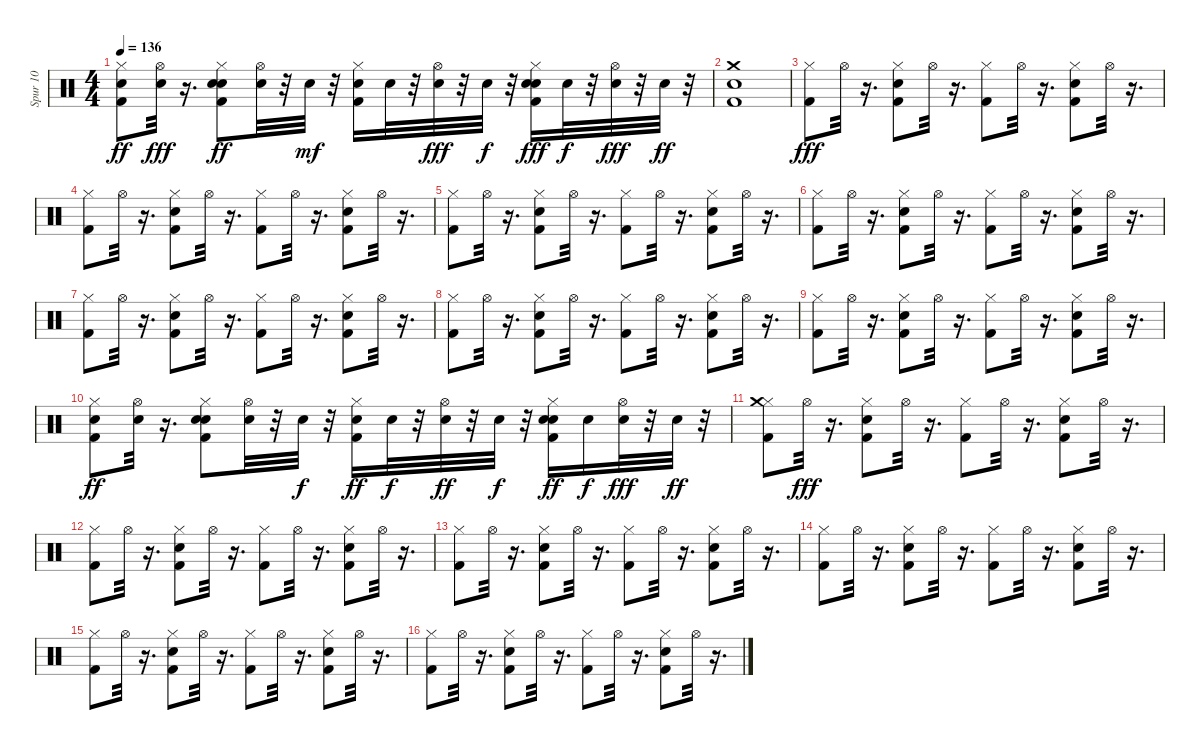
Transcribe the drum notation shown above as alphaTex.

\track ("Spur 10" "Spur 10") {instrument percussion}
\staff {score}
\articulation defaults
\ts (4 4)
\tempo 136
\clef neutral
\ks c
("Hi-Hat (closed)" "Kick (hit) 2" "Snare (hit) 2").8{dy ff} ("Snare (hit) 2" "Hi-Hat (open)").32{dy fff} r.16{d} ("Kick (hit) 2" "Snare (hit) 2" "Hi-Hat (closed)" "Snare (hit) 2").8{dy ff} ("Hi-Hat (open)" "Snare (hit) 2").32 r.32 "Snare (hit) 2".32{dy mf} r.32 ("Kick (hit) 2" "Hi-Hat (closed)" "Snare (hit) 2").16 "Snare (hit) 2".32 r.32 ("Snare (hit) 2" "Hi-Hat (open)").32{dy fff} r.32 "Snare (hit) 2".32{dy f} r.32 ("Hi-Hat (closed)" "Kick (hit) 2" "Snare (hit) 2" "Snare (hit) 2").16{dy fff} "Snare (hit) 2".32{dy f} r.32 ("Snare (hit) 2" "Hi-Hat (open)").32{dy fff} r.32 "Snare (hit) 2".32{dy ff} r.32 |
("Kick (hit) 2" "Snare (hit) 2" "Crash medium (hit)").1 |
("Hi-Hat (closed)" "Kick (hit) 2").8{dy fff} "Hi-Hat (open)".32 r.16{d} ("Snare (hit) 2" "Hi-Hat (closed)" "Kick (hit) 2").8 "Hi-Hat (open)".32 r.16{d} ("Hi-Hat (closed)" "Kick (hit) 2").8 "Hi-Hat (open)".32 r.16{d} ("Kick (hit) 2" "Hi-Hat (closed)" "Snare (hit) 2").8 "Hi-Hat (open)".32 r.16{d} |
("Hi-Hat (closed)" "Kick (hit) 2").8 "Hi-Hat (open)".32 r.16{d} ("Kick (hit) 2" "Hi-Hat (closed)" "Snare (hit) 2").8 "Hi-Hat (open)".32 r.16{d} ("Kick (hit) 2" "Hi-Hat (closed)").8 "Hi-Hat (open)".32 r.16{d} ("Hi-Hat (closed)" "Kick (hit) 2" "Snare (hit) 2").8 "Hi-Hat (open)".32 r.16{d} |
("Kick (hit) 2" "Hi-Hat (closed)").8 "Hi-Hat (open)".32 r.16{d} ("Hi-Hat (closed)" "Snare (hit) 2" "Kick (hit) 2").8 "Hi-Hat (open)".32 r.16{d} ("Kick (hit) 2" "Hi-Hat (closed)").8 "Hi-Hat (open)".32 r.16{d} ("Kick (hit) 2" "Hi-Hat (closed)" "Snare (hit) 2").8 "Hi-Hat (open)".32 r.16{d} |
("Hi-Hat (closed)" "Kick (hit) 2").8 "Hi-Hat (open)".32 r.16{d} ("Hi-Hat (closed)" "Kick (hit) 2" "Snare (hit) 2").8 "Hi-Hat (open)".32 r.16{d} ("Hi-Hat (closed)" "Kick (hit) 2").8 "Hi-Hat (open)".32 r.16{d} ("Hi-Hat (closed)" "Snare (hit) 2" "Kick (hit) 2").8 "Hi-Hat (open)".32 r.16{d} |
("Hi-Hat (closed)" "Kick (hit) 2").8 "Hi-Hat (open)".32 r.16{d} ("Hi-Hat (closed)" "Kick (hit) 2" "Snare (hit) 2").8 "Hi-Hat (open)".32 r.16{d} ("Hi-Hat (closed)" "Kick (hit) 2").8 "Hi-Hat (open)".32 r.16{d} ("Hi-Hat (closed)" "Snare (hit) 2" "Kick (hit) 2").8 "Hi-Hat (open)".32 r.16{d} |
("Kick (hit) 2" "Hi-Hat (closed)").8 "Hi-Hat (open)".32 r.16{d} ("Snare (hit) 2" "Hi-Hat (closed)" "Kick (hit) 2").8 "Hi-Hat (open)".32 r.16{d} ("Kick (hit) 2" "Hi-Hat (closed)").8 "Hi-Hat (open)".32 r.16{d} ("Hi-Hat (closed)" "Kick (hit) 2" "Snare (hit) 2").8 "Hi-Hat (open)".32 r.16{d} |
("Hi-Hat (closed)" "Kick (hit) 2").8 "Hi-Hat (open)".32 r.16{d} ("Snare (hit) 2" "Hi-Hat (closed)" "Kick (hit) 2").8 "Hi-Hat (open)".32 r.16{d} ("Kick (hit) 2" "Hi-Hat (closed)").8 "Hi-Hat (open)".32 r.16{d} ("Hi-Hat (closed)" "Kick (hit) 2" "Snare (hit) 2").8 "Hi-Hat (open)".32 r.16{d} |
("Hi-Hat (closed)" "Kick (hit) 2" "Snare (hit) 2").8{dy ff} ("Hi-Hat (open)" "Snare (hit) 2").32 r.16{d} ("Hi-Hat (closed)" "Snare (hit) 2" "Kick (hit) 2" "Snare (hit) 2").8 ("Hi-Hat (open)" "Snare (hit) 2").32 r.32 "Snare (hit) 2".32{dy f} r.32 ("Hi-Hat (closed)" "Kick (hit) 2" "Snare (hit) 2").16{dy ff} "Snare (hit) 2".32{dy f} r.32 ("Hi-Hat (open)" "Snare (hit) 2").32{dy ff} r.32 "Snare (hit) 2".32{dy f} r.32 ("Hi-Hat (closed)" "Kick (hit) 2" "Snare (hit) 2" "Snare (hit) 2").16{dy ff} "Snare (hit) 2".16{dy f} ("Hi-Hat (open)" "Snare (hit) 2").32{dy fff} r.32 "Snare (hit) 2".32{dy ff} r.32 |
("Hi-Hat (closed)" "Kick (hit) 2" "Crash medium (hit)").8 "Hi-Hat (open)".32{dy fff} r.16{d} ("Hi-Hat (closed)" "Kick (hit) 2" "Snare (hit) 2").8 "Hi-Hat (open)".32 r.16{d} ("Hi-Hat (closed)" "Kick (hit) 2").8 "Hi-Hat (open)".32 r.16{d} ("Kick (hit) 2" "Snare (hit) 2" "Hi-Hat (closed)").8 "Hi-Hat (open)".32 r.16{d} |
("Hi-Hat (closed)" "Kick (hit) 2").8 "Hi-Hat (open)".32 r.16{d} ("Kick (hit) 2" "Snare (hit) 2" "Hi-Hat (closed)").8 "Hi-Hat (open)".32 r.16{d} ("Hi-Hat (closed)" "Kick (hit) 2").8 "Hi-Hat (open)".32 r.16{d} ("Hi-Hat (closed)" "Kick (hit) 2" "Snare (hit) 2").8 "Hi-Hat (open)".32 r.16{d} |
("Hi-Hat (closed)" "Kick (hit) 2").8 "Hi-Hat (open)".32 r.16{d} ("Hi-Hat (closed)" "Kick (hit) 2" "Snare (hit) 2").8 "Hi-Hat (open)".32 r.16{d} ("Hi-Hat (closed)" "Kick (hit) 2").8 "Hi-Hat (open)".32 r.16{d} ("Hi-Hat (closed)" "Kick (hit) 2" "Snare (hit) 2").8 "Hi-Hat (open)".32 r.16{d} |
("Hi-Hat (closed)" "Kick (hit) 2").8 "Hi-Hat (open)".32 r.16{d} ("Hi-Hat (closed)" "Kick (hit) 2" "Snare (hit) 2").8 "Hi-Hat (open)".32 r.16{d} ("Hi-Hat (closed)" "Kick (hit) 2").8 "Hi-Hat (open)".32 r.16{d} ("Hi-Hat (closed)" "Kick (hit) 2" "Snare (hit) 2").8 "Hi-Hat (open)".32 r.16{d} |
("Hi-Hat (closed)" "Kick (hit) 2").8 "Hi-Hat (open)".32 r.16{d} ("Hi-Hat (closed)" "Kick (hit) 2" "Snare (hit) 2").8 "Hi-Hat (open)".32 r.16{d} ("Hi-Hat (closed)" "Kick (hit) 2").8 "Hi-Hat (open)".32 r.16{d} ("Hi-Hat (closed)" "Kick (hit) 2" "Snare (hit) 2").8 "Hi-Hat (open)".32 r.16{d} |
("Hi-Hat (closed)" "Kick (hit) 2").8 "Hi-Hat (open)".32 r.16{d} ("Hi-Hat (closed)" "Kick (hit) 2" "Snare (hit) 2").8 "Hi-Hat (open)".32 r.16{d} ("Hi-Hat (closed)" "Kick (hit) 2").8 "Hi-Hat (open)".32 r.16{d} ("Hi-Hat (closed)" "Kick (hit) 2" "Snare (hit) 2").8 "Hi-Hat (open)".32 r.16{d}
